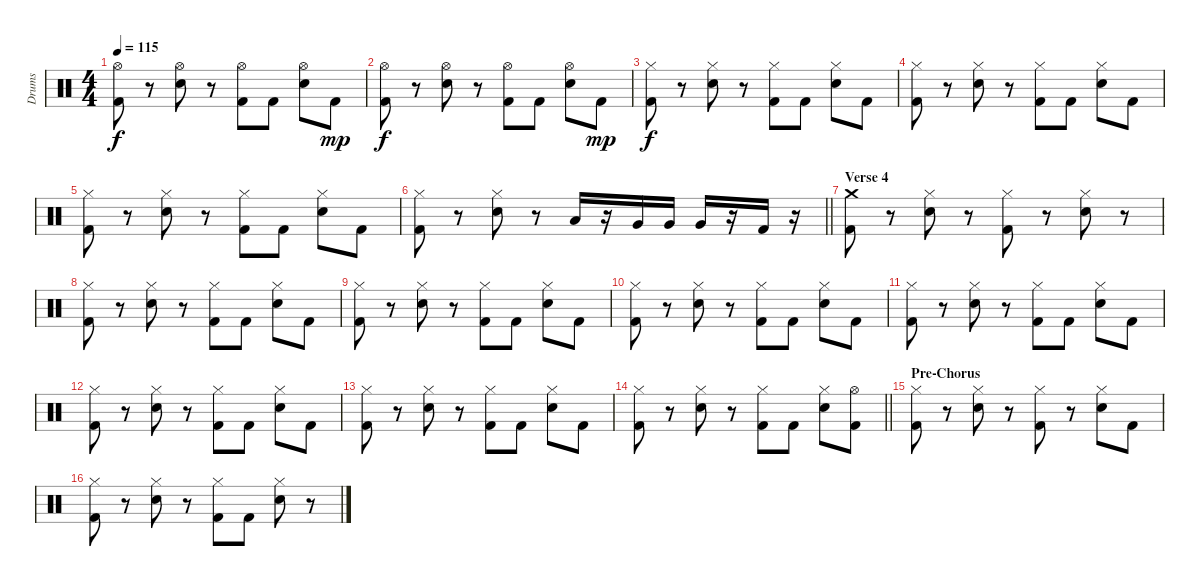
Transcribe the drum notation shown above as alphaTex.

\track ("Drums" "Drums") {instrument percussion}
\staff {score}
\articulation defaults
\ts (4 4)
\tempo 115
\clef neutral
\ks c
("Hi-Hat (open)" "Kick (hit) 2").8{dy f} r.8 ("Hi-Hat (open)" "Snare (hit) 2").8 r.8 ("Hi-Hat (open)" "Kick (hit) 2").8 "Kick (hit) 2".8 ("Hi-Hat (open)" "Snare (hit) 2").8 "Kick (hit) 2".8{dy mp} |
("Hi-Hat (open)" "Kick (hit) 2").8{dy f} r.8 ("Hi-Hat (open)" "Snare (hit) 2").8 r.8 ("Hi-Hat (open)" "Kick (hit) 2").8 "Kick (hit) 2".8 ("Hi-Hat (open)" "Snare (hit) 2").8 "Kick (hit) 2".8{dy mp} |
("Hi-Hat (closed)" "Kick (hit) 2").8{dy f} r.8 ("Hi-Hat (closed)" "Snare (hit) 2").8 r.8 ("Hi-Hat (closed)" "Kick (hit) 2").8 "Kick (hit) 2".8 ("Hi-Hat (closed)" "Snare (hit) 2").8 "Kick (hit) 2".8 |
("Hi-Hat (closed)" "Kick (hit) 2").8 r.8 ("Hi-Hat (closed)" "Snare (hit) 2").8 r.8 ("Hi-Hat (closed)" "Kick (hit) 2").8 "Kick (hit) 2".8 ("Hi-Hat (closed)" "Snare (hit) 2").8 "Kick (hit) 2".8 |
("Hi-Hat (closed)" "Kick (hit) 2").8 r.8 ("Hi-Hat (closed)" "Snare (hit) 2").8 r.8 ("Hi-Hat (closed)" "Kick (hit) 2").8 "Kick (hit) 2".8 ("Hi-Hat (closed)" "Snare (hit) 2").8 "Kick (hit) 2".8 |
\barLineRight lightlight
("Hi-Hat (closed)" "Kick (hit) 2").8 r.8 ("Hi-Hat (closed)" "Snare (hit) 2").8 r.8 "Low Tom (hit)".16 r.16 "Very Low Tom (hit)".16 "Very Low Tom (hit)".16 "Very Low Tom (hit)".16 r.16 "Kick (hit) 2".16 r.16 |
\section ("" "Verse 4")
("Crash medium (hit)" "Kick (hit) 2").8 r.8 ("Hi-Hat (closed)" "Snare (hit) 2").8 r.8 ("Hi-Hat (closed)" "Kick (hit) 2").8 r.8 ("Hi-Hat (closed)" "Snare (hit) 2").8 r.8 |
("Hi-Hat (closed)" "Kick (hit) 2").8 r.8 ("Hi-Hat (closed)" "Snare (hit) 2").8 r.8 ("Hi-Hat (closed)" "Kick (hit) 2").8 "Kick (hit) 2".8 ("Hi-Hat (closed)" "Snare (hit) 2").8 "Kick (hit) 2".8 |
("Hi-Hat (closed)" "Kick (hit) 2").8 r.8 ("Hi-Hat (closed)" "Snare (hit) 2").8 r.8 ("Hi-Hat (closed)" "Kick (hit) 2").8 "Kick (hit) 2".8 ("Hi-Hat (closed)" "Snare (hit) 2").8 "Kick (hit) 2".8 |
("Hi-Hat (closed)" "Kick (hit) 2").8 r.8 ("Hi-Hat (closed)" "Snare (hit) 2").8 r.8 ("Hi-Hat (closed)" "Kick (hit) 2").8 "Kick (hit) 2".8 ("Hi-Hat (closed)" "Snare (hit) 2").8 "Kick (hit) 2".8 |
("Hi-Hat (closed)" "Kick (hit) 2").8 r.8 ("Hi-Hat (closed)" "Snare (hit) 2").8 r.8 ("Hi-Hat (closed)" "Kick (hit) 2").8 "Kick (hit) 2".8 ("Hi-Hat (closed)" "Snare (hit) 2").8 "Kick (hit) 2".8 |
("Hi-Hat (closed)" "Kick (hit) 2").8 r.8 ("Hi-Hat (closed)" "Snare (hit) 2").8 r.8 ("Hi-Hat (closed)" "Kick (hit) 2").8 "Kick (hit) 2".8 ("Hi-Hat (closed)" "Snare (hit) 2").8 "Kick (hit) 2".8 |
("Hi-Hat (closed)" "Kick (hit) 2").8 r.8 ("Hi-Hat (closed)" "Snare (hit) 2").8 r.8 ("Hi-Hat (closed)" "Kick (hit) 2").8 "Kick (hit) 2".8 ("Hi-Hat (closed)" "Snare (hit) 2").8 "Kick (hit) 2".8 |
\barLineRight lightlight
("Hi-Hat (closed)" "Kick (hit) 2").8 r.8 ("Hi-Hat (closed)" "Snare (hit) 2").8 r.8 ("Hi-Hat (closed)" "Kick (hit) 2").8 "Kick (hit) 2".8 ("Hi-Hat (closed)" "Snare (hit) 2").8 ("Hi-Hat (open)" "Kick (hit) 2").8 |
\section ("" "Pre-Chorus")
("Hi-Hat (closed)" "Kick (hit) 2").8 r.8 ("Hi-Hat (closed)" "Snare (hit) 2").8 r.8 ("Hi-Hat (closed)" "Kick (hit) 2").8 r.8 ("Hi-Hat (closed)" "Snare (hit) 2").8 "Kick (hit) 2".8 |
("Hi-Hat (closed)" "Kick (hit) 2").8 r.8 ("Hi-Hat (closed)" "Snare (hit) 2").8 r.8 ("Hi-Hat (closed)" "Kick (hit) 2").8 "Kick (hit) 2".8 ("Hi-Hat (closed)" "Snare (hit) 2").8 r.8
